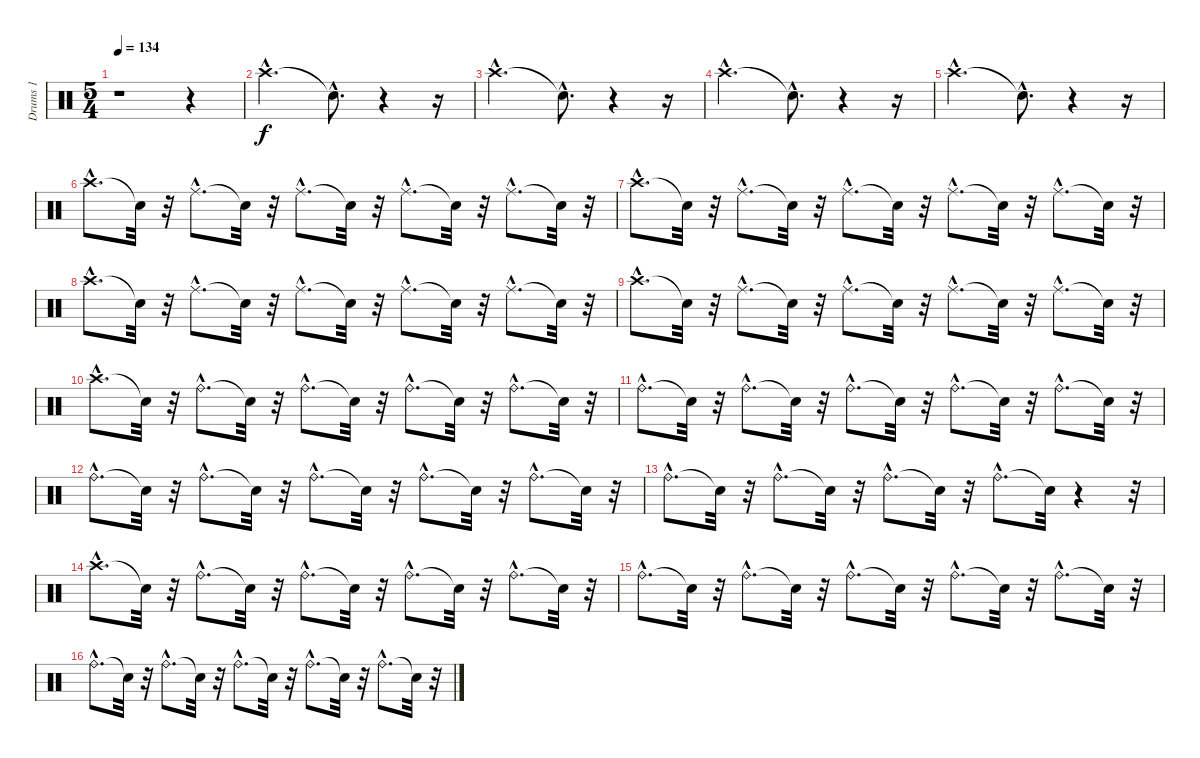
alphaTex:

\track ("Drums 1" "Drums 1") {instrument percussion}
\staff {score}
\articulation defaults
\ts (5 4)
\tempo 134
\clef neutral
\ks c
r.1{dy f} r.4 |
"Crash high (hit)"{hac}.2{d} "Snare (hit)"{hac t}.8{d} r.4 r.16 |
"Crash high (hit)"{hac}.2{d} "Snare (hit)"{hac t}.8{d} r.4 r.16 |
"Crash high (hit)"{hac}.2{d} "Snare (hit)"{hac t}.8{d} r.4 r.16 |
"Crash high (hit)"{hac}.2{d} "Snare (hit)"{hac t}.8{d} r.4 r.16 |
"Crash high (hit)"{hac}.8{d} "Snare (hit)"{t}.32 r.32 "Ride (middle)"{hac}.8{d} "Snare (hit)"{t}.32 r.32 "Ride (middle)"{hac}.8{d} "Snare (hit)"{t}.32 r.32 "Ride (middle)"{hac}.8{d} "Snare (hit)"{t}.32 r.32 "Ride (middle)"{hac}.8{d} "Snare (hit)"{t}.32 r.32 |
"Crash high (hit)"{hac}.8{d} "Snare (hit)"{t}.32 r.32 "Ride (middle)"{hac}.8{d} "Snare (hit)"{t}.32 r.32 "Ride (middle)"{hac}.8{d} "Snare (hit)"{t}.32 r.32 "Ride (middle)"{hac}.8{d} "Snare (hit)"{t}.32 r.32 "Ride (middle)"{hac}.8{d} "Snare (hit)"{t}.32 r.32 |
"Crash high (hit)"{hac}.8{d} "Snare (hit)"{t}.32 r.32 "Ride (middle)"{hac}.8{d} "Snare (hit)"{t}.32 r.32 "Ride (middle)"{hac}.8{d} "Snare (hit)"{t}.32 r.32 "Ride (middle)"{hac}.8{d} "Snare (hit)"{t}.32 r.32 "Ride (middle)"{hac}.8{d} "Snare (hit)"{t}.32 r.32 |
"Crash high (hit)"{hac}.8{d} "Snare (hit)"{t}.32 r.32 "Ride (middle)"{hac}.8{d} "Snare (hit)"{t}.32 r.32 "Ride (middle)"{hac}.8{d} "Snare (hit)"{t}.32 r.32 "Ride (middle)"{hac}.8{d} "Snare (hit)"{t}.32 r.32 "Ride (middle)"{hac}.8{d} "Snare (hit)"{t}.32 r.32 |
"Crash high (hit)"{hac}.8{d} "Snare (hit)"{t}.32 r.32 "Ride (bell)"{hac}.8{d} "Snare (hit)"{t}.32 r.32 "Ride (bell)"{hac}.8{d} "Snare (hit)"{t}.32 r.32 "Ride (bell)"{hac}.8{d} "Snare (hit)"{t}.32 r.32 "Ride (bell)"{hac}.8{d} "Snare (hit)"{t}.32 r.32 |
"Ride (bell)"{hac}.8{d} "Snare (hit)"{t}.32 r.32 "Ride (bell)"{hac}.8{d} "Snare (hit)"{t}.32 r.32 "Ride (bell)"{hac}.8{d} "Snare (hit)"{t}.32 r.32 "Ride (bell)"{hac}.8{d} "Snare (hit)"{t}.32 r.32 "Ride (bell)"{hac}.8{d} "Snare (hit)"{t}.32 r.32 |
"Ride (bell)"{hac}.8{d} "Snare (hit)"{t}.32 r.32 "Ride (bell)"{hac}.8{d} "Snare (hit)"{t}.32 r.32 "Ride (bell)"{hac}.8{d} "Snare (hit)"{t}.32 r.32 "Ride (bell)"{hac}.8{d} "Snare (hit)"{t}.32 r.32 "Ride (bell)"{hac}.8{d} "Snare (hit)"{t}.32 r.32 |
"Ride (bell)"{hac}.8{d} "Snare (hit)"{t}.32 r.32 "Ride (bell)"{hac}.8{d} "Snare (hit)"{t}.32 r.32 "Ride (bell)"{hac}.8{d} "Snare (hit)"{t}.32 r.32 "Ride (bell)"{hac}.8{d} "Snare (hit)"{t}.32 r.4 r.32 |
"Crash high (hit)"{hac}.8{d} "Snare (hit)"{t}.32 r.32 "Ride (bell)"{hac}.8{d} "Snare (hit)"{t}.32 r.32 "Ride (bell)"{hac}.8{d} "Snare (hit)"{t}.32 r.32 "Ride (bell)"{hac}.8{d} "Snare (hit)"{t}.32 r.32 "Ride (bell)"{hac}.8{d} "Snare (hit)"{t}.32 r.32 |
"Ride (bell)"{hac}.8{d} "Snare (hit)"{t}.32 r.32 "Ride (bell)"{hac}.8{d} "Snare (hit)"{t}.32 r.32 "Ride (bell)"{hac}.8{d} "Snare (hit)"{t}.32 r.32 "Ride (bell)"{hac}.8{d} "Snare (hit)"{t}.32 r.32 "Ride (bell)"{hac}.8{d} "Snare (hit)"{t}.32 r.32 |
"Ride (bell)"{hac}.8{d} "Snare (hit)"{t}.32 r.32 "Ride (bell)"{hac}.8{d} "Snare (hit)"{t}.32 r.32 "Ride (bell)"{hac}.8{d} "Snare (hit)"{t}.32 r.32 "Ride (bell)"{hac}.8{d} "Snare (hit)"{t}.32 r.32 "Ride (bell)"{hac}.8{d} "Snare (hit)"{t}.32 r.32
